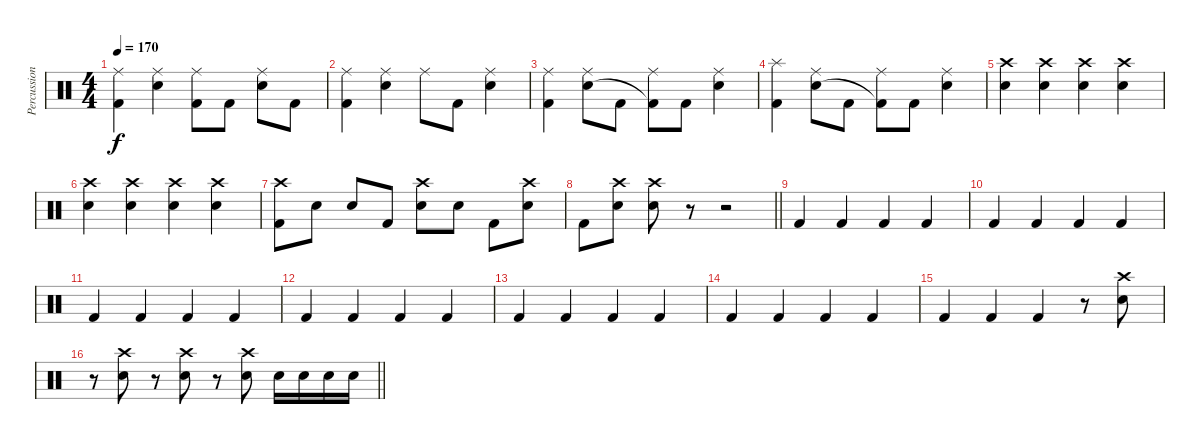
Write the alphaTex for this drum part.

\track ("Percussion" "Percussion") {instrument percussion}
\staff {score}
\articulation defaults
\ts (4 4)
\tempo 170
\clef neutral
\ks c
("Ride (middle)" "Kick (hit) 2").4{dy f} ("Ride (middle)" "Snare (hit) 2").4 ("Ride (middle)" "Kick (hit) 2").8 "Kick (hit) 2".8 ("Ride (middle)" "Snare (hit) 2").8 "Kick (hit) 2".8 |
("Ride (middle)" "Kick (hit) 2").4 ("Ride (middle)" "Snare (hit) 2").4 "Ride (middle)".8 "Kick (hit) 2".8 ("Ride (middle)" "Snare (hit) 2").4 |
("Ride (middle)" "Kick (hit) 2").4 ("Ride (middle)" "Snare (hit) 2").8 "Kick (hit) 2".8 ("Ride (middle)" "Kick (hit) 2"{t}).8 "Kick (hit) 2".8 ("Ride (middle)" "Snare (hit) 2").4 |
("Splash (hit)" "Kick (hit) 2").4 ("Ride (middle)" "Snare (hit) 2").8 "Kick (hit) 2".8 ("Ride (middle)" "Kick (hit) 2"{t}).8 "Kick (hit) 2".8 ("Ride (middle)" "Snare (hit) 2").4 |
("Crash high (hit)" "Snare (hit) 2").4 ("Crash high (hit)" "Snare (hit) 2").4 ("Crash high (hit)" "Snare (hit) 2").4 ("Crash high (hit)" "Snare (hit) 2").4 |
("Crash high (hit)" "Snare (hit) 2").4 ("Crash high (hit)" "Snare (hit) 2").4 ("Crash high (hit)" "Snare (hit) 2").4 ("Crash high (hit)" "Snare (hit) 2").4 |
("Crash high (hit)" "Kick (hit) 2").8 "Snare (hit) 2".8 "Snare (hit) 2".8 "Kick (hit) 2".8 ("Crash high (hit)" "Snare (hit) 2").8 "Snare (hit) 2".8 "Kick (hit) 2".8 ("Crash high (hit)" "Snare (hit) 2").8 |
\barLineRight lightlight "Kick (hit) 2".8
("Crash high (hit)" "Snare (hit) 2").8 ("Crash high (hit)" "Snare (hit) 2").8 r.8 r.2 |
"Kick (hit) 2".4 "Kick (hit) 2".4 "Kick (hit) 2".4 "Kick (hit) 2".4 |
"Kick (hit) 2".4 "Kick (hit) 2".4 "Kick (hit) 2".4 "Kick (hit) 2".4 |
"Kick (hit) 2".4 "Kick (hit) 2".4 "Kick (hit) 2".4 "Kick (hit) 2".4 |
"Kick (hit) 2".4 "Kick (hit) 2".4 "Kick (hit) 2".4 "Kick (hit) 2".4 |
"Kick (hit) 2".4 "Kick (hit) 2".4 "Kick (hit) 2".4 "Kick (hit) 2".4 |
"Kick (hit) 2".4 "Kick (hit) 2".4 "Kick (hit) 2".4 "Kick (hit) 2".4 |
"Kick (hit) 2".4 "Kick (hit) 2".4 "Kick (hit) 2".4 r.8 ("Crash high (hit)" "Snare (hit) 2").8 |
\barLineRight lightlight
r.8 ("Crash high (hit)" "Snare (hit) 2").8 r.8 ("Crash high (hit)" "Snare (hit) 2").8 r.8 ("Crash high (hit)" "Snare (hit) 2").8 "Snare (hit) 2".16 "Snare (hit) 2".16 "Snare (hit) 2".16 "Snare (hit) 2".16
